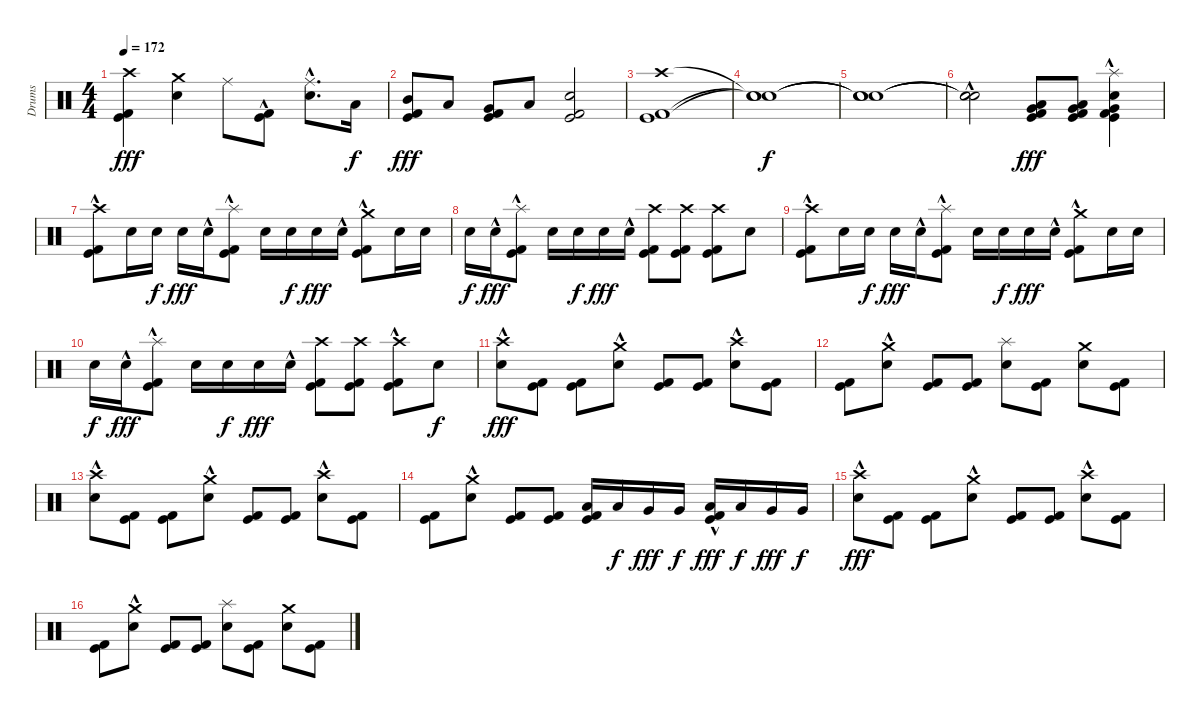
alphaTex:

\track ("Drums" "Drums") {instrument percussion}
\staff {score}
\articulation defaults
\ts (4 4)
\tempo 172
\clef neutral
\ks c
("Kick (hit)" "Kick (hit) 2" "Crash high (hit)").4{dy fff} ("Electric Snare (hit)" "Crash medium (hit)").4 "Ride (middle)".8 ("Kick (hit)"{hac} "Kick (hit) 2"{hac}).8 ("Electric Snare (hit)"{hac} "Ride (middle)").8{d} "Low Tom (hit)".16{dy f} |
("Kick (hit)" "Kick (hit) 2" "Mid Tom (hit)").8{dy fff} "Low Tom (hit)".8 ("Kick (hit)" "Kick (hit) 2" "Very Low Tom (hit)").8 "Low Tom (hit)".8 ("Kick (hit)" "Kick (hit) 2" "Electric Snare (hit)").2 |
("Kick (hit)" "Kick (hit) 2" "Crash high (hit)").1 |
("Snare (hit)"{t} "Snare (hit)"{t} "Snare (hit)"{t}).1{dy f} |
("Snare (hit)"{t} "Snare (hit)"{t} "Snare (hit)"{t}).1 |
("Snare (hit)"{t} "Snare (hit)"{t} "Snare (hit)"{hac t}).2 ("Kick (hit)" "Kick (hit) 2" "Very Low Tom (hit)" "Low Tom (hit)").8{dy fff} ("Kick (hit)" "Kick (hit) 2" "Very Low Tom (hit)" "Low Tom (hit)").8 ("Kick (hit)" "Kick (hit) 2" "Very Low Tom (hit)"{hac} "Electric Snare (hit)"{hac} "Splash (hit)").4 |
("Kick (hit)"{hac} "Kick (hit) 2"{hac} "Crash high (hit)"{hac}).8 "Electric Snare (hit)".16 "Electric Snare (hit)".16{dy f} "Electric Snare (hit)".16{dy fff} "Electric Snare (hit)"{hac}.16 ("Kick (hit)"{hac} "Kick (hit) 2"{hac} "Splash (hit)"{hac}).8 "Electric Snare (hit)".16 "Electric Snare (hit)".16{dy f} "Electric Snare (hit)".16{dy fff} "Electric Snare (hit)"{hac}.16 ("Kick (hit)"{hac} "Kick (hit) 2"{hac} "Crash medium (hit)"{hac}).8 "Electric Snare (hit)".16 "Electric Snare (hit)".16 |
"Electric Snare (hit)".16{dy f} "Electric Snare (hit)"{hac}.16{dy fff} ("Kick (hit)"{hac} "Kick (hit) 2"{hac} "Splash (hit)"{hac}).8 "Electric Snare (hit)".16 "Electric Snare (hit)".16{dy f} "Electric Snare (hit)".16{dy fff} "Electric Snare (hit)"{hac}.16 ("Kick (hit)" "Kick (hit) 2" "Crash high (hit)").8 ("Kick (hit)" "Kick (hit) 2" "Crash high (hit)").8 ("Kick (hit)" "Kick (hit) 2" "Crash high (hit)").8 "Electric Snare (hit)".8 |
("Kick (hit)"{hac} "Kick (hit) 2"{hac} "Crash high (hit)"{hac}).8 "Electric Snare (hit)".16 "Electric Snare (hit)".16{dy f} "Electric Snare (hit)".16{dy fff} "Electric Snare (hit)"{hac}.16 ("Kick (hit)"{hac} "Kick (hit) 2"{hac} "Splash (hit)"{hac}).8 "Electric Snare (hit)".16 "Electric Snare (hit)".16{dy f} "Electric Snare (hit)".16{dy fff} "Electric Snare (hit)"{hac}.16 ("Kick (hit)"{hac} "Kick (hit) 2"{hac} "Crash medium (hit)"{hac}).8 "Electric Snare (hit)".16 "Electric Snare (hit)".16 |
"Electric Snare (hit)".16{dy f} "Electric Snare (hit)"{hac}.16{dy fff} ("Kick (hit)"{hac} "Kick (hit) 2"{hac} "Splash (hit)"{hac}).8 "Electric Snare (hit)".16 "Electric Snare (hit)".16{dy f} "Electric Snare (hit)".16{dy fff} "Electric Snare (hit)"{hac}.16 ("Kick (hit)" "Kick (hit) 2" "Crash high (hit)").8 ("Kick (hit)" "Kick (hit) 2" "Crash high (hit)").8 ("Kick (hit)"{hac} "Kick (hit) 2"{hac} "Crash high (hit)").8 "Electric Snare (hit)".8{dy f} |
("Electric Snare (hit)"{hac} "Crash high (hit)"{hac}).8{dy fff} ("Kick (hit)" "Kick (hit) 2").8 ("Kick (hit)" "Kick (hit) 2").8 ("Electric Snare (hit)"{hac} "Crash medium (hit)"{hac}).8 ("Kick (hit)" "Kick (hit) 2").8 ("Kick (hit)" "Kick (hit) 2").8 ("Electric Snare (hit)"{hac} "Crash high (hit)"{hac}).8 ("Kick (hit)" "Kick (hit) 2").8 |
("Kick (hit)" "Kick (hit) 2").8 ("Electric Snare (hit)"{hac} "Crash medium (hit)"{hac}).8 ("Kick (hit)" "Kick (hit) 2").8 ("Kick (hit)" "Kick (hit) 2").8 ("Electric Snare (hit)" "Splash (hit)").8 ("Kick (hit)" "Kick (hit) 2").8 ("Electric Snare (hit)" "Crash medium (hit)").8 ("Kick (hit)" "Kick (hit) 2").8 |
("Electric Snare (hit)"{hac} "Crash high (hit)"{hac}).8 ("Kick (hit)" "Kick (hit) 2").8 ("Kick (hit)" "Kick (hit) 2").8 ("Electric Snare (hit)"{hac} "Crash medium (hit)"{hac}).8 ("Kick (hit)" "Kick (hit) 2").8 ("Kick (hit)" "Kick (hit) 2").8 ("Electric Snare (hit)"{hac} "Crash high (hit)"{hac}).8 ("Kick (hit)" "Kick (hit) 2").8 |
("Kick (hit)" "Kick (hit) 2").8 ("Electric Snare (hit)"{hac} "Crash medium (hit)"{hac}).8 ("Kick (hit)" "Kick (hit) 2").8 ("Kick (hit)" "Kick (hit) 2").8 ("Kick (hit)" "Kick (hit) 2" "Low Tom (hit)").16 "Low Tom (hit)".16{dy f} "Very Low Tom (hit)".16{dy fff} "Very Low Tom (hit)".16{dy f} ("Kick (hit)"{hac} "Kick (hit) 2"{hac} "Low Tom (hit)").16{dy fff} "Low Tom (hit)".16{dy f} "Very Low Tom (hit)".16{dy fff} "Very Low Tom (hit)".16{dy f} |
("Electric Snare (hit)"{hac} "Crash high (hit)"{hac}).8{dy fff} ("Kick (hit)" "Kick (hit) 2").8 ("Kick (hit)" "Kick (hit) 2").8 ("Electric Snare (hit)"{hac} "Crash medium (hit)"{hac}).8 ("Kick (hit)" "Kick (hit) 2").8 ("Kick (hit)" "Kick (hit) 2").8 ("Electric Snare (hit)"{hac} "Crash high (hit)"{hac}).8 ("Kick (hit)" "Kick (hit) 2").8 |
("Kick (hit)" "Kick (hit) 2").8 ("Electric Snare (hit)"{hac} "Crash medium (hit)"{hac}).8 ("Kick (hit)" "Kick (hit) 2").8 ("Kick (hit)" "Kick (hit) 2").8 ("Electric Snare (hit)" "Splash (hit)").8 ("Kick (hit)" "Kick (hit) 2").8 ("Electric Snare (hit)" "Crash medium (hit)").8 ("Kick (hit)" "Kick (hit) 2").8
